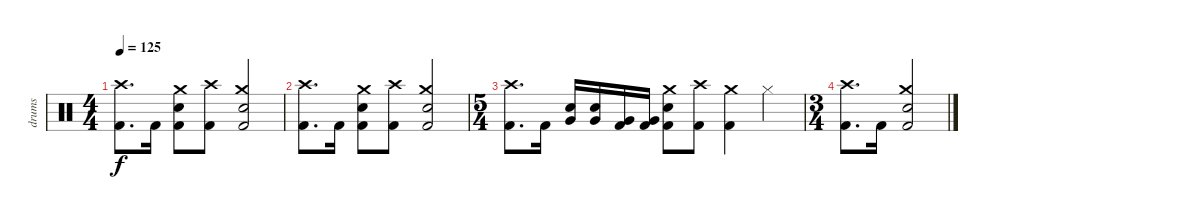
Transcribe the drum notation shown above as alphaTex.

\track ("drums" "drums") {instrument percussion}
\staff {score}
\articulation defaults
\ts (4 4)
\tempo 125
\clef neutral
\ks c
("Crash high (hit)" "Kick (hit) 2").8{d dy f} "Kick (hit) 2".16 ("Crash medium (hit)" "Electric Snare (hit)" "Kick (hit) 2").8 ("Crash high (hit)" "Kick (hit) 2").8 ("Crash medium (hit)" "Electric Snare (hit)" "Kick (hit) 2").2 |
("Crash high (hit)" "Kick (hit) 2").8{d} "Kick (hit) 2".16 ("Crash medium (hit)" "Electric Snare (hit)" "Kick (hit) 2").8 ("Crash high (hit)" "Kick (hit) 2").8 ("Crash medium (hit)" "Electric Snare (hit)" "Kick (hit) 2").2 |
\ts (5 4)
("Crash high (hit)" "Kick (hit) 2").8{d} "Kick (hit) 2".16 ("Electric Snare (hit)" "Very Low Tom (hit)").16 ("Electric Snare (hit)" "Very Low Tom (hit)").16 ("Very Low Tom (hit)" "Kick (hit) 2").16 ("Very Low Tom (hit)" "Kick (hit) 2").16 ("Crash medium (hit)" "Electric Snare (hit)" "Kick (hit) 2").8 ("Crash high (hit)" "Kick (hit) 2").8 ("Crash medium (hit)" "Kick (hit) 2").4 "Hi-Hat (closed)".4 |
\ts (3 4)
("Crash high (hit)" "Kick (hit) 2").8{d} "Kick (hit) 2".16 ("Crash medium (hit)" "Electric Snare (hit)" "Kick (hit) 2").2
